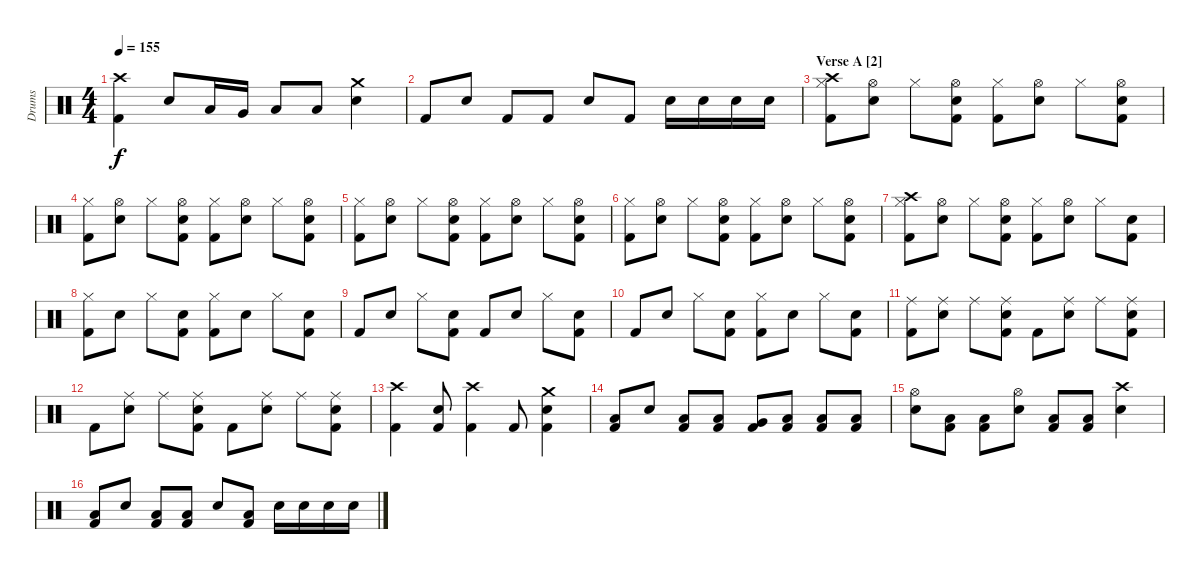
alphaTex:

\track ("Drums" "Drums") {instrument percussion}
\staff {score}
\articulation defaults
\ts (4 4)
\tempo 155
\clef neutral
\ks c
("Crash high (hit)" "Kick (hit) 2").4{dy f} "Electric Snare (hit)".8 "Low Tom (hit)".16 "Very Low Tom (hit)".16 "Low Floor Tom (hit)".8 "Low Floor Tom (hit)".8 ("Crash medium (hit)" "Electric Snare (hit)").4 |
"Kick (hit) 2".8 "Electric Snare (hit)".8 "Kick (hit) 2".8 "Kick (hit) 2".8 "Electric Snare (hit)".8 "Kick (hit) 2".8 "Electric Snare (hit)".16 "Electric Snare (hit)".16 "Electric Snare (hit)".16 "Electric Snare (hit)".16 |
\section ("" "Verse A [2]")
("Crash high (hit)" "Hi-Hat (closed)" "Kick (hit) 2").8 ("Hi-Hat (open)" "Electric Snare (hit)").8 "Hi-Hat (closed)".8 ("Hi-Hat (open)" "Electric Snare (hit)" "Kick (hit) 2").8 ("Hi-Hat (closed)" "Kick (hit) 2").8 ("Hi-Hat (open)" "Electric Snare (hit)").8 "Hi-Hat (closed)".8 ("Hi-Hat (open)" "Electric Snare (hit)" "Kick (hit) 2").8 |
("Hi-Hat (closed)" "Kick (hit) 2").8 ("Hi-Hat (open)" "Electric Snare (hit)").8 "Hi-Hat (closed)".8 ("Hi-Hat (open)" "Electric Snare (hit)" "Kick (hit) 2").8 ("Hi-Hat (closed)" "Kick (hit) 2").8 ("Hi-Hat (open)" "Electric Snare (hit)").8 "Hi-Hat (closed)".8 ("Hi-Hat (open)" "Electric Snare (hit)" "Kick (hit) 2").8 |
("Hi-Hat (closed)" "Kick (hit) 2").8 ("Hi-Hat (open)" "Electric Snare (hit)").8 "Hi-Hat (closed)".8 ("Hi-Hat (open)" "Electric Snare (hit)" "Kick (hit) 2").8 ("Hi-Hat (closed)" "Kick (hit) 2").8 ("Hi-Hat (open)" "Electric Snare (hit)").8 "Hi-Hat (closed)".8 ("Hi-Hat (open)" "Electric Snare (hit)" "Kick (hit) 2").8 |
("Hi-Hat (closed)" "Kick (hit) 2").8 ("Hi-Hat (open)" "Electric Snare (hit)").8 "Hi-Hat (closed)".8 ("Hi-Hat (open)" "Electric Snare (hit)" "Kick (hit) 2").8 ("Hi-Hat (closed)" "Kick (hit) 2").8 ("Hi-Hat (open)" "Electric Snare (hit)").8 "Hi-Hat (closed)".8 ("Hi-Hat (open)" "Electric Snare (hit)" "Kick (hit) 2").8 |
("Crash high (hit)" "Hi-Hat (closed)" "Kick (hit) 2").8 ("Hi-Hat (open)" "Electric Snare (hit)").8 "Hi-Hat (closed)".8 ("Hi-Hat (open)" "Electric Snare (hit)" "Kick (hit) 2").8 ("Hi-Hat (closed)" "Kick (hit) 2").8 ("Hi-Hat (open)" "Electric Snare (hit)").8 "Hi-Hat (closed)".8 ("Electric Snare (hit)" "Kick (hit) 2").8 |
("Hi-Hat (closed)" "Kick (hit) 2").8 "Electric Snare (hit)".8 "Hi-Hat (closed)".8 ("Electric Snare (hit)" "Kick (hit) 2").8 ("Hi-Hat (closed)" "Kick (hit) 2").8 "Electric Snare (hit)".8 "Hi-Hat (closed)".8 ("Electric Snare (hit)" "Kick (hit) 2").8 |
"Kick (hit) 2".8 "Electric Snare (hit)".8 "Hi-Hat (closed)".8 ("Electric Snare (hit)" "Kick (hit) 2").8 "Kick (hit) 2".8 "Electric Snare (hit)".8 "Hi-Hat (closed)".8 ("Electric Snare (hit)" "Kick (hit) 2").8 |
"Kick (hit) 2".8 "Electric Snare (hit)".8 "Hi-Hat (closed)".8 ("Electric Snare (hit)" "Kick (hit) 2").8 ("Hi-Hat (closed)" "Kick (hit) 2").8 "Electric Snare (hit)".8 "Hi-Hat (closed)".8 ("Electric Snare (hit)" "Kick (hit) 2").8 |
("Ride (middle)" "Kick (hit) 2").8 ("Ride (middle)" "Electric Snare (hit)").8 "Ride (middle)".8 ("Ride (middle)" "Electric Snare (hit)" "Kick (hit) 2").8 "Kick (hit) 2".8 ("Ride (middle)" "Electric Snare (hit)").8 "Ride (middle)".8 ("Ride (middle)" "Electric Snare (hit)" "Kick (hit) 2").8 |
"Kick (hit) 2".8 ("Ride (middle)" "Electric Snare (hit)").8 "Ride (middle)".8 ("Ride (middle)" "Electric Snare (hit)" "Kick (hit) 2").8 "Kick (hit) 2".8 ("Ride (middle)" "Electric Snare (hit)").8 "Ride (middle)".8 ("Ride (middle)" "Electric Snare (hit)" "Kick (hit) 2").8 |
("Crash high (hit)" "Kick (hit) 2").4 ("Electric Snare (hit)" "Kick (hit) 2").8 ("Crash high (hit)" "Kick (hit) 2").4 "Kick (hit) 2".8 ("Crash medium (hit)" "Electric Snare (hit)" "Kick (hit) 2").4 |
("Low Floor Tom (hit)" "Kick (hit) 2").8 "Electric Snare (hit)".8 ("Low Floor Tom (hit)" "Kick (hit) 2").8 ("Low Floor Tom (hit)" "Kick (hit) 2").8 ("Very Low Tom (hit)" "Kick (hit) 2").8 ("Low Floor Tom (hit)" "Kick (hit) 2").8 ("Low Tom (hit)" "Kick (hit) 2").8 ("Low Floor Tom (hit)" "Kick (hit) 2").8 |
("Hi-Hat (open)" "Electric Snare (hit)").8 ("Low Floor Tom (hit)" "Kick (hit) 2").8 ("Low Floor Tom (hit)" "Kick (hit) 2").8 ("Hi-Hat (open)" "Electric Snare (hit)").8 ("Low Floor Tom (hit)" "Kick (hit) 2").8 ("Low Floor Tom (hit)" "Kick (hit) 2").8 ("Crash high (hit)" "Electric Snare (hit)").4 |
("Low Floor Tom (hit)" "Kick (hit) 2").8 "Electric Snare (hit)".8 ("Low Floor Tom (hit)" "Kick (hit) 2").8 ("Low Floor Tom (hit)" "Kick (hit) 2").8 "Electric Snare (hit)".8 ("Low Floor Tom (hit)" "Kick (hit) 2").8 "Electric Snare (hit)".16 "Electric Snare (hit)".16 "Electric Snare (hit)".16 "Electric Snare (hit)".16
